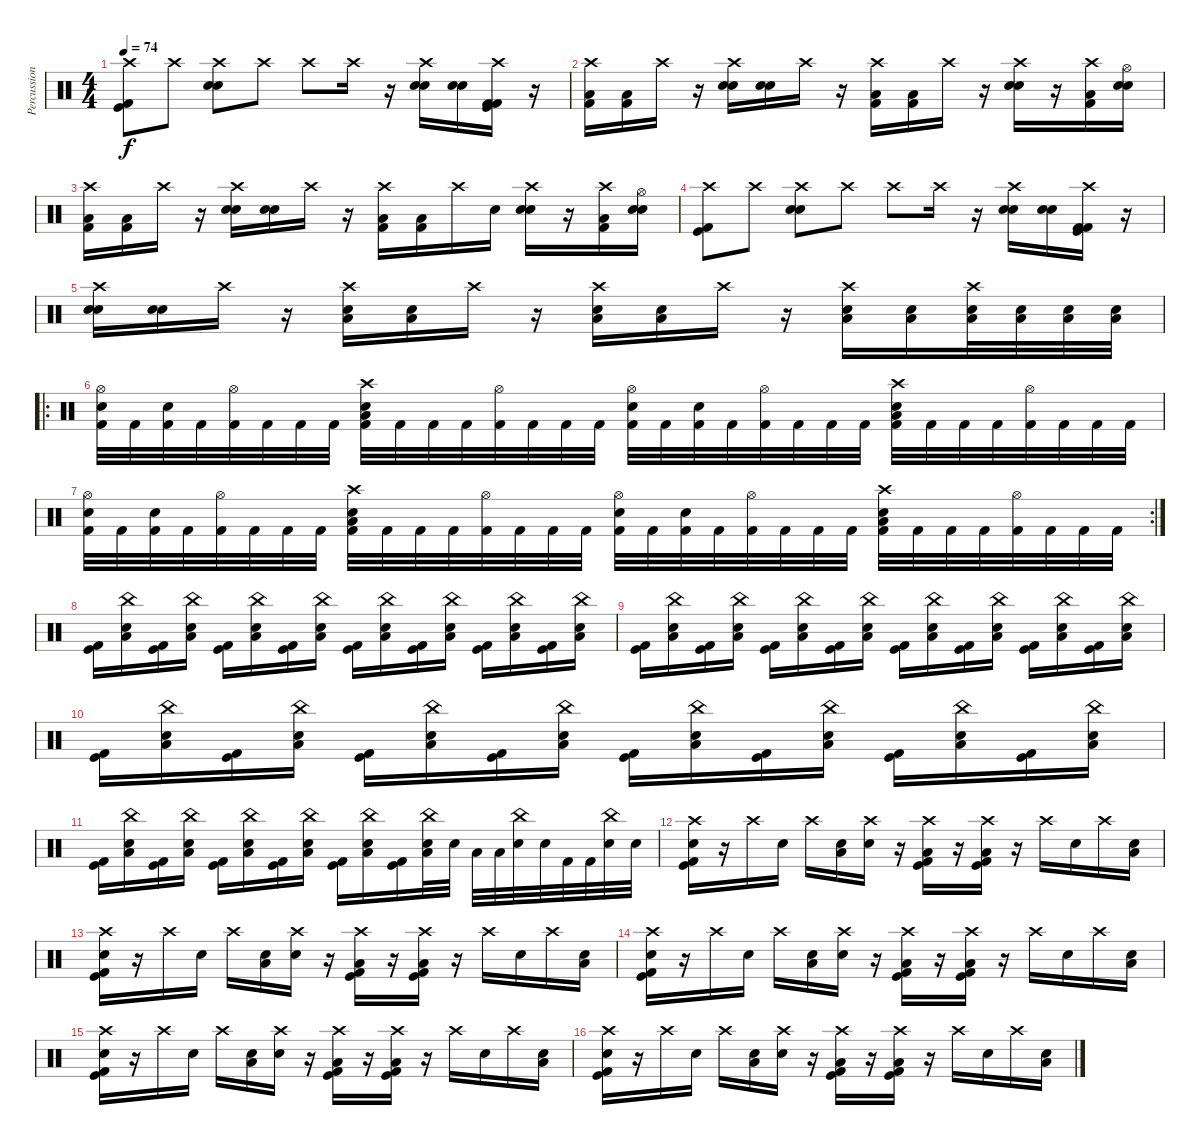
\track ("Percussions" "Percussion") {instrument percussion}
\staff {score}
\articulation defaults
\ts (4 4)
\tempo 74
\clef neutral
\ks c
("Crash high (hit)" "Kick (hit)" "Kick (hit) 2").8{dy f} "Crash high (hit)".8 ("Crash high (hit)" "Snare (hit) 2" "Electric Snare (hit)").8 "Crash high (hit)".8 "Crash high (hit)".8 "Crash high (hit)".16 r.16 ("Crash high (hit)" "Electric Snare (hit)" "Snare (hit) 2").16 ("Electric Snare (hit)" "Snare (hit) 2").16 ("Crash high (hit)" "Kick (hit)" "Kick (hit) 2" "Kick (hit) 2").16 r.16 |
("Crash high (hit)" "Low Tom (hit)" "Kick (hit) 2").16 ("Low Tom (hit)" "Kick (hit) 2").16 "Crash high (hit)".16 r.16 ("Crash high (hit)" "Snare (hit) 2" "Electric Snare (hit)").16 ("Snare (hit) 2" "Electric Snare (hit)").16 "Crash high (hit)".16 r.16 ("Crash high (hit)" "Low Tom (hit)" "Kick (hit) 2").16 ("Low Tom (hit)" "Kick (hit) 2").16 "Crash high (hit)".16 r.16 ("Crash high (hit)" "Snare (hit) 2" "Electric Snare (hit)").16 r.16 ("Crash high (hit)" "Low Tom (hit)" "Kick (hit) 2").16 ("Hi-Hat (open)" "Electric Snare (hit)" "Snare (hit) 2").16 |
("Crash high (hit)" "Low Tom (hit)" "Kick (hit) 2").16 ("Low Tom (hit)" "Kick (hit) 2").16 "Crash high (hit)".16 r.16 ("Crash high (hit)" "Snare (hit) 2" "Electric Snare (hit)").16 ("Snare (hit) 2" "Electric Snare (hit)").16 "Crash high (hit)".16 r.16 ("Crash high (hit)" "Low Tom (hit)" "Kick (hit) 2").16 ("Low Tom (hit)" "Kick (hit) 2").16 "Crash high (hit)".16 "Electric Snare (hit)".16 ("Crash high (hit)" "Snare (hit) 2" "Electric Snare (hit)").16 r.16 ("Crash high (hit)" "Low Tom (hit)" "Kick (hit) 2").16 ("Hi-Hat (open)" "Electric Snare (hit)" "Snare (hit) 2").16 |
("Crash high (hit)" "Kick (hit)" "Kick (hit) 2").8 "Crash high (hit)".8 ("Crash high (hit)" "Snare (hit) 2" "Electric Snare (hit)").8 "Crash high (hit)".8 "Crash high (hit)".8 "Crash high (hit)".16 r.16 ("Crash high (hit)" "Electric Snare (hit)" "Snare (hit) 2").16 ("Electric Snare (hit)" "Snare (hit) 2").16 ("Crash high (hit)" "Kick (hit)" "Kick (hit) 2" "Kick (hit) 2").16 r.16 |
("Crash high (hit)" "Snare (hit) 2" "Electric Snare (hit)").16 ("Snare (hit) 2" "Electric Snare (hit)").16 "Crash high (hit)".16 r.16 ("Crash high (hit)" "Electric Snare (hit)" "Low Tom (hit)").16 ("Electric Snare (hit)" "Low Tom (hit)").16 "Crash high (hit)".16 r.16 ("Crash high (hit)" "Electric Snare (hit)" "Low Tom (hit)").16 ("Electric Snare (hit)" "Low Tom (hit)").16 "Crash high (hit)".16 r.16 ("Crash high (hit)" "Electric Snare (hit)" "Low Tom (hit)").16 ("Electric Snare (hit)" "Low Tom (hit)").16 ("Crash high (hit)" "Electric Snare (hit)" "Low Tom (hit)").32 ("Electric Snare (hit)" "Low Tom (hit)").32 ("Electric Snare (hit)" "Low Tom (hit)").32 ("Electric Snare (hit)" "Low Tom (hit)").32 |
\ro
("Hi-Hat (open)" "Snare (hit) 2" "Kick (hit) 2").32 "Kick (hit) 2".32 ("Snare (hit) 2" "Kick (hit) 2").32 "Kick (hit) 2".32 ("Hi-Hat (open)" "Kick (hit) 2").32 "Kick (hit) 2".32 "Kick (hit) 2".32 "Kick (hit) 2".32 ("Crash high (hit)" "Electric Snare (hit)" "Low Tom (hit)" "Kick (hit) 2").32 "Kick (hit) 2".32 "Kick (hit) 2".32 "Kick (hit) 2".32 ("Hi-Hat (open)" "Kick (hit) 2").32 "Kick (hit) 2".32 "Kick (hit) 2".32 "Kick (hit) 2".32 ("Hi-Hat (open)" "Snare (hit) 2" "Kick (hit) 2").32 "Kick (hit) 2".32 ("Snare (hit) 2" "Kick (hit) 2").32 "Kick (hit) 2".32 ("Hi-Hat (open)" "Kick (hit) 2").32 "Kick (hit) 2".32 "Kick (hit) 2".32 "Kick (hit) 2".32 ("Crash high (hit)" "Electric Snare (hit)" "Low Tom (hit)" "Kick (hit) 2").32 "Kick (hit) 2".32 "Kick (hit) 2".32 "Kick (hit) 2".32 ("Hi-Hat (open)" "Kick (hit) 2").32 "Kick (hit) 2".32 "Kick (hit) 2".32 "Kick (hit) 2".32 |
\rc 2
("Hi-Hat (open)" "Snare (hit) 2" "Kick (hit) 2").32 "Kick (hit) 2".32 ("Snare (hit) 2" "Kick (hit) 2").32 "Kick (hit) 2".32 ("Hi-Hat (open)" "Kick (hit) 2").32 "Kick (hit) 2".32 "Kick (hit) 2".32 "Kick (hit) 2".32 ("Crash high (hit)" "Electric Snare (hit)" "Low Tom (hit)" "Kick (hit) 2").32 "Kick (hit) 2".32 "Kick (hit) 2".32 "Kick (hit) 2".32 ("Hi-Hat (open)" "Kick (hit) 2").32 "Kick (hit) 2".32 "Kick (hit) 2".32 "Kick (hit) 2".32 ("Hi-Hat (open)" "Snare (hit) 2" "Kick (hit) 2").32 "Kick (hit) 2".32 ("Snare (hit) 2" "Kick (hit) 2").32 "Kick (hit) 2".32 ("Hi-Hat (open)" "Kick (hit) 2").32 "Kick (hit) 2".32 "Kick (hit) 2".32 "Kick (hit) 2".32 ("Crash high (hit)" "Electric Snare (hit)" "Low Tom (hit)" "Kick (hit) 2").32 "Kick (hit) 2".32 "Kick (hit) 2".32 "Kick (hit) 2".32 ("Hi-Hat (open)" "Kick (hit) 2").32 "Kick (hit) 2".32 "Kick (hit) 2".32 "Kick (hit) 2".32 |
("Kick (hit)" "Kick (hit) 2").16 ("Low Tom (hit)" "China (hit)" "Electric Snare (hit)").16 ("Kick (hit)" "Kick (hit) 2").16 ("Low Tom (hit)" "China (hit)" "Electric Snare (hit)").16 ("Kick (hit)" "Kick (hit) 2").16 ("Low Tom (hit)" "China (hit)" "Electric Snare (hit)").16 ("Kick (hit)" "Kick (hit) 2").16 ("Low Tom (hit)" "China (hit)" "Electric Snare (hit)").16 ("Kick (hit)" "Kick (hit) 2").16 ("Low Tom (hit)" "China (hit)" "Electric Snare (hit)").16 ("Kick (hit)" "Kick (hit) 2").16 ("Low Tom (hit)" "China (hit)" "Electric Snare (hit)").16 ("Kick (hit)" "Kick (hit) 2").16 ("Low Tom (hit)" "China (hit)" "Electric Snare (hit)").16 ("Kick (hit)" "Kick (hit) 2").16 ("Low Tom (hit)" "China (hit)" "Electric Snare (hit)").16 |
("Kick (hit)" "Kick (hit) 2").16 ("Low Tom (hit)" "China (hit)" "Electric Snare (hit)").16 ("Kick (hit)" "Kick (hit) 2").16 ("Low Tom (hit)" "China (hit)" "Electric Snare (hit)").16 ("Kick (hit)" "Kick (hit) 2").16 ("Low Tom (hit)" "China (hit)" "Electric Snare (hit)").16 ("Kick (hit)" "Kick (hit) 2").16 ("Low Tom (hit)" "China (hit)" "Electric Snare (hit)").16 ("Kick (hit)" "Kick (hit) 2").16 ("Low Tom (hit)" "China (hit)" "Electric Snare (hit)").16 ("Kick (hit)" "Kick (hit) 2").16 ("Low Tom (hit)" "China (hit)" "Electric Snare (hit)").16 ("Kick (hit)" "Kick (hit) 2").16 ("Low Tom (hit)" "China (hit)" "Electric Snare (hit)").16 ("Kick (hit)" "Kick (hit) 2").16 ("Low Tom (hit)" "China (hit)" "Electric Snare (hit)").16 |
("Kick (hit)" "Kick (hit) 2").16 ("Low Tom (hit)" "China (hit)" "Electric Snare (hit)").16 ("Kick (hit)" "Kick (hit) 2").16 ("Low Tom (hit)" "China (hit)" "Electric Snare (hit)").16 ("Kick (hit)" "Kick (hit) 2").16 ("Low Tom (hit)" "China (hit)" "Electric Snare (hit)").16 ("Kick (hit)" "Kick (hit) 2").16 ("Low Tom (hit)" "China (hit)" "Electric Snare (hit)").16 ("Kick (hit)" "Kick (hit) 2").16 ("Low Tom (hit)" "China (hit)" "Electric Snare (hit)").16 ("Kick (hit)" "Kick (hit) 2").16 ("Low Tom (hit)" "China (hit)" "Electric Snare (hit)").16 ("Kick (hit)" "Kick (hit) 2").16 ("Low Tom (hit)" "China (hit)" "Electric Snare (hit)").16 ("Kick (hit)" "Kick (hit) 2").16 ("Low Tom (hit)" "China (hit)" "Electric Snare (hit)").16 |
("Kick (hit)" "Kick (hit) 2").16 ("Low Tom (hit)" "China (hit)" "Electric Snare (hit)").16 ("Kick (hit)" "Kick (hit) 2").16 ("Low Tom (hit)" "China (hit)" "Electric Snare (hit)").16 ("Kick (hit)" "Kick (hit) 2").16 ("Low Tom (hit)" "China (hit)" "Electric Snare (hit)").16 ("Kick (hit)" "Kick (hit) 2").16 ("Low Tom (hit)" "China (hit)" "Electric Snare (hit)").16 ("Kick (hit)" "Kick (hit) 2").16 ("Low Tom (hit)" "China (hit)" "Electric Snare (hit)").16 ("Kick (hit)" "Kick (hit) 2").16 ("Low Tom (hit)" "China (hit)" "Electric Snare (hit)").32 "Electric Snare (hit)".32 "Low Tom (hit)".32 "Low Tom (hit)".32 ("China (hit)" "Snare (hit) 2").32 "Snare (hit) 2".32 "Kick (hit) 2".32 "Kick (hit) 2".32 ("China (hit)" "Electric Snare (hit)").32 "Electric Snare (hit)".32 |
("Crash high (hit)" "Snare (hit) 2" "Kick (hit) 2" "Kick (hit)").16 r.16 "Crash high (hit)".16 "Electric Snare (hit)".16 "Crash high (hit)".16 ("Low Tom (hit)" "Snare (hit) 2").16 ("Crash high (hit)" "Electric Snare (hit)").16 r.16 ("Crash high (hit)" "Kick (hit)" "Low Tom (hit)" "Kick (hit) 2").16 r.16 ("Crash high (hit)" "Kick (hit)" "Low Tom (hit)" "Kick (hit) 2").16 r.16 "Crash high (hit)".16 "Electric Snare (hit)".16 "Crash high (hit)".16 ("Low Tom (hit)" "Snare (hit) 2").16 |
("Crash high (hit)" "Snare (hit) 2" "Kick (hit) 2" "Kick (hit)").16 r.16 "Crash high (hit)".16 "Electric Snare (hit)".16 "Crash high (hit)".16 ("Low Tom (hit)" "Snare (hit) 2").16 ("Crash high (hit)" "Electric Snare (hit)").16 r.16 ("Crash high (hit)" "Kick (hit)" "Low Tom (hit)" "Kick (hit) 2").16 r.16 ("Crash high (hit)" "Kick (hit)" "Low Tom (hit)" "Kick (hit) 2").16 r.16 "Crash high (hit)".16 "Electric Snare (hit)".16 "Crash high (hit)".16 ("Low Tom (hit)" "Snare (hit) 2").16 |
("Crash high (hit)" "Snare (hit) 2" "Kick (hit) 2" "Kick (hit)").16 r.16 "Crash high (hit)".16 "Electric Snare (hit)".16 "Crash high (hit)".16 ("Low Tom (hit)" "Snare (hit) 2").16 ("Crash high (hit)" "Electric Snare (hit)").16 r.16 ("Crash high (hit)" "Kick (hit)" "Low Tom (hit)" "Kick (hit) 2").16 r.16 ("Crash high (hit)" "Kick (hit)" "Low Tom (hit)" "Kick (hit) 2").16 r.16 "Crash high (hit)".16 "Electric Snare (hit)".16 "Crash high (hit)".16 ("Low Tom (hit)" "Snare (hit) 2").16 |
("Crash high (hit)" "Snare (hit) 2" "Kick (hit) 2" "Kick (hit)").16 r.16 "Crash high (hit)".16 "Electric Snare (hit)".16 "Crash high (hit)".16 ("Low Tom (hit)" "Snare (hit) 2").16 ("Crash high (hit)" "Electric Snare (hit)").16 r.16 ("Crash high (hit)" "Kick (hit)" "Low Tom (hit)" "Kick (hit) 2").16 r.16 ("Crash high (hit)" "Kick (hit)" "Low Tom (hit)" "Kick (hit) 2").16 r.16 "Crash high (hit)".16 "Electric Snare (hit)".16 "Crash high (hit)".16 ("Low Tom (hit)" "Snare (hit) 2").16 |
("Crash high (hit)" "Snare (hit) 2" "Kick (hit) 2" "Kick (hit)").16 r.16 "Crash high (hit)".16 "Electric Snare (hit)".16 "Crash high (hit)".16 ("Low Tom (hit)" "Snare (hit) 2").16 ("Crash high (hit)" "Electric Snare (hit)").16 r.16 ("Crash high (hit)" "Kick (hit)" "Low Tom (hit)" "Kick (hit) 2").16 r.16 ("Crash high (hit)" "Kick (hit)" "Low Tom (hit)" "Kick (hit) 2").16 r.16 "Crash high (hit)".16 "Electric Snare (hit)".16 "Crash high (hit)".16 ("Low Tom (hit)" "Snare (hit) 2").16
